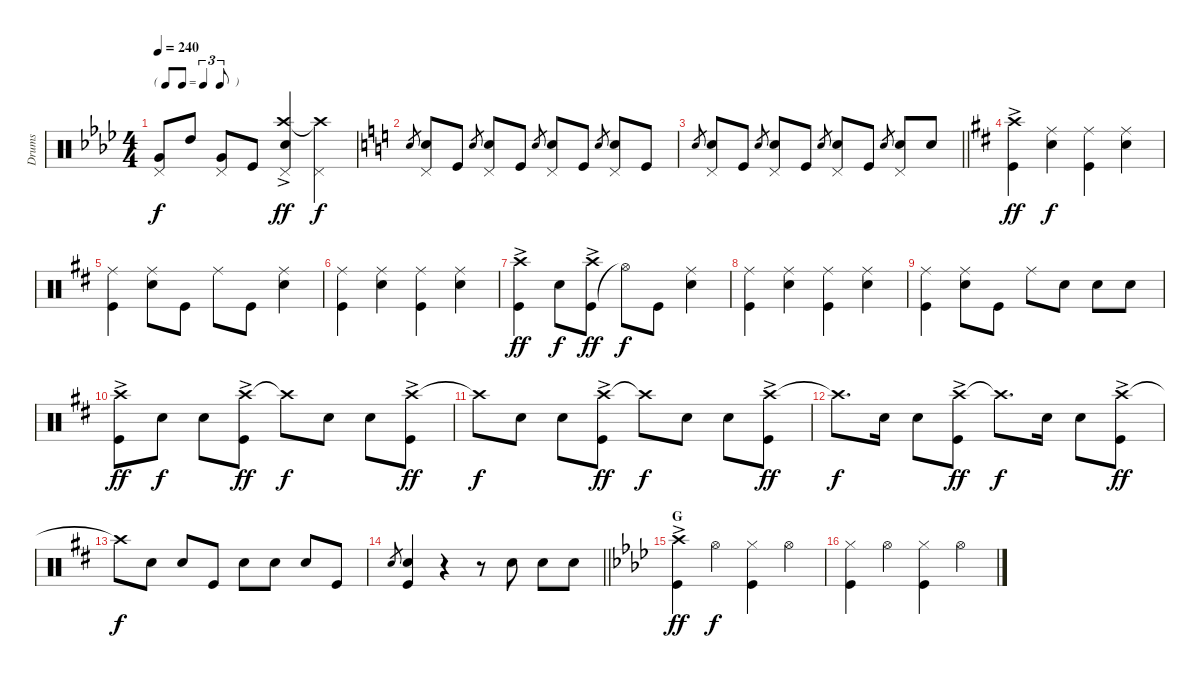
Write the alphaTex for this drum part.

\track ("Drums" "Drums") {instrument percussion}
\staff {score}
\articulation defaults
\ts (4 4)
\tf triplet8th
\tempo 240
\clef neutral
\ks ab
("Pedal Hi-Hat (hit)" "Very Low Tom (hit)").8{dy f} "High Tom (hit)".8 ("Very Low Tom (hit)" "Pedal Hi-Hat (hit)").8 "Kick (hit)".8 ("Crash high (hit)"{ac} "Snare (hit) 2" "Pedal Hi-Hat (hit)").4{dy ff} ("Crash high (hit)"{t} "Pedal Hi-Hat (hit)").4{dy f} |
\ks c "Snare (hit) 2".8{gr}
("Snare (hit) 2" "Pedal Hi-Hat (hit)").8 "Kick (hit)".8 "Snare (hit) 2".8{gr} ("Snare (hit) 2" "Pedal Hi-Hat (hit)").8 "Kick (hit)".8 "Snare (hit) 2".8{gr} ("Snare (hit) 2" "Pedal Hi-Hat (hit)").8 "Kick (hit)".8 "Snare (hit) 2".8{gr} ("Snare (hit) 2" "Pedal Hi-Hat (hit)").8 "Kick (hit)".8 |
\barLineRight lightlight "Snare (hit) 2".8{gr}
("Snare (hit) 2" "Pedal Hi-Hat (hit)").8 "Kick (hit)".8 "Snare (hit) 2".8{gr} ("Snare (hit) 2" "Pedal Hi-Hat (hit)").8 "Kick (hit)".8 "Snare (hit) 2".8{gr} ("Snare (hit) 2" "Pedal Hi-Hat (hit)").8 "Kick (hit)".8 "Snare (hit) 2".8{gr} ("Snare (hit) 2" "Pedal Hi-Hat (hit)").8 "Snare (hit) 2".8 |
\ks d
("Crash high (hit)"{ac} "Kick (hit)").4{dy ff} ("Ride (middle)" "Snare (hit) 2").4{dy f} ("Ride (middle)" "Kick (hit)").4 ("Ride (middle)" "Snare (hit) 2").4 |
("Ride (middle)" "Kick (hit)").4 ("Ride (middle)" "Snare (hit) 2").8 "Kick (hit)".8 "Ride (middle)".8 "Kick (hit)".8 ("Ride (middle)" "Snare (hit) 2").4 |
("Ride (middle)" "Kick (hit)").4 ("Ride (middle)" "Snare (hit) 2").4 ("Ride (middle)" "Kick (hit)").4 ("Ride (middle)" "Snare (hit) 2").4 |
("Crash high (hit)"{ac} "Kick (hit)").4{dy ff} "Snare (hit) 2".8{dy f} ("Kick (hit)" "Crash high (hit)"{ac}).8{dy ff} "Hi-Hat (open)"{t}.8{dy f} "Kick (hit)".8 ("Ride (middle)" "Snare (hit) 2").4 |
("Ride (middle)" "Kick (hit)").4 ("Ride (middle)" "Snare (hit) 2").4 ("Ride (middle)" "Kick (hit)").4 ("Ride (middle)" "Snare (hit) 2").4 |
("Kick (hit)" "Ride (middle)").4 ("Ride (middle)" "Snare (hit) 2").8 "Kick (hit)".8 "Ride (middle)".8 "Snare (hit) 2".8 "Snare (hit) 2".8 "Snare (hit) 2".8 |
("Crash high (hit)"{ac} "Kick (hit)").8{dy ff} "Snare (hit) 2".8{dy f} "Snare (hit) 2".8 ("Crash high (hit)"{ac} "Kick (hit)").8{dy ff} "Crash high (hit)"{t}.8{dy f} "Snare (hit) 2".8 "Snare (hit) 2".8 ("Crash high (hit)"{ac} "Kick (hit)").8{dy ff} |
"Crash high (hit)"{t}.8{dy f} "Snare (hit) 2".8 "Snare (hit) 2".8 ("Crash high (hit)"{ac} "Kick (hit)").8{dy ff} "Crash high (hit)"{t}.8{dy f} "Snare (hit) 2".8 "Snare (hit) 2".8 ("Crash high (hit)"{ac} "Kick (hit)").8{dy ff} |
"Crash high (hit)"{t}.8{d dy f} "Snare (hit) 2".16 "Snare (hit) 2".8 ("Crash high (hit)"{ac} "Kick (hit)").8{dy ff} "Crash high (hit)"{t}.8{d dy f} "Snare (hit) 2".16 "Snare (hit) 2".8 ("Crash high (hit)"{ac} "Kick (hit)").8{dy ff} |
"Crash high (hit)"{t}.8{dy f} "Snare (hit) 2".8 "Snare (hit) 2".8 "Kick (hit)".8 "Snare (hit) 2".8 "Snare (hit) 2".8 "Snare (hit) 2".8 "Kick (hit)".8 |
\barLineRight lightlight "Snare (hit) 2".8{gr}
("Snare (hit) 2" "Kick (hit)").4 r.4 r.8 "Snare (hit) 2".8 "Snare (hit) 2".8 "Snare (hit) 2".8 |
\section ("" "G")
\ks ab
("Crash high (hit)"{ac} "Kick (hit)").4{dy ff} "Hi-Hat (open)".4{dy f} ("Hi-Hat (closed)" "Kick (hit)").4 "Hi-Hat (open)".4 |
("Hi-Hat (closed)" "Kick (hit)").4 "Hi-Hat (open)".4 ("Hi-Hat (closed)" "Kick (hit)").4 "Hi-Hat (open)".4
